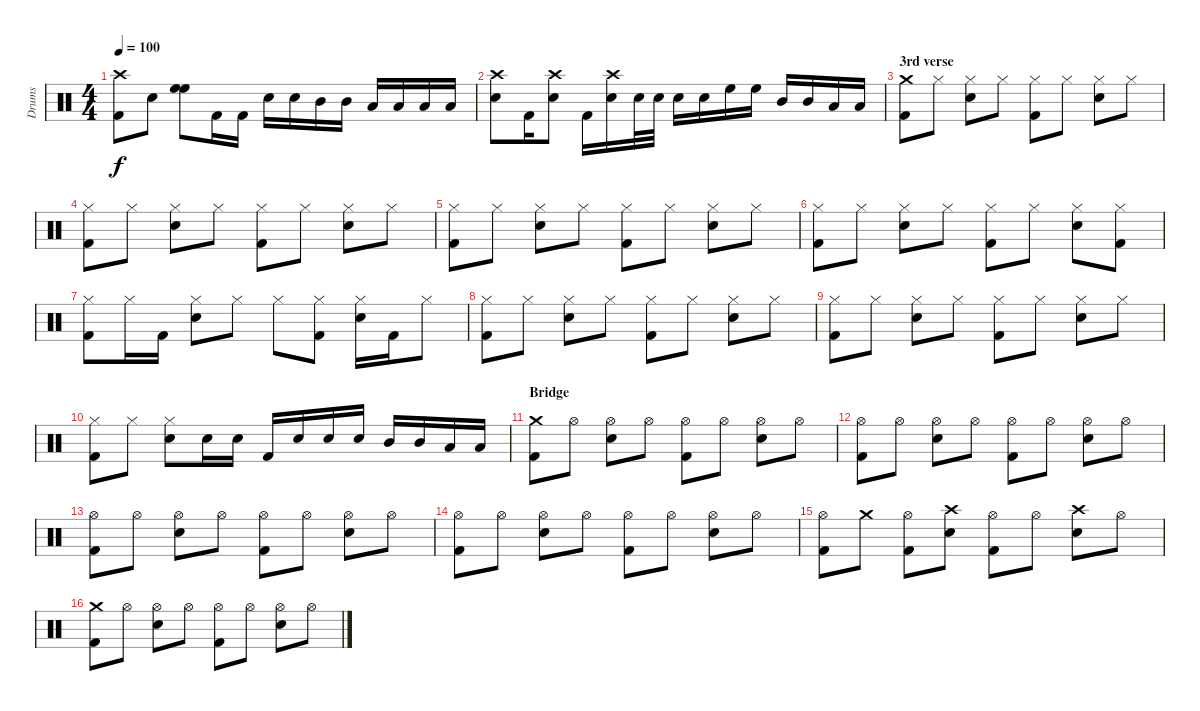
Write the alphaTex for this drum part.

\track ("Drums" "Drums") {instrument percussion}
\staff {score}
\articulation defaults
\ts (4 4)
\tempo 100
\clef neutral
\ks c
("Crash high (hit)" "Kick (hit) 2").8{dy f} "Snare (hit) 2".8 ("High Floor Tom (hit)" "High Floor Tom (hit)").8 "Kick (hit) 2".16 "Kick (hit) 2".16 "Snare (hit) 2".16 "Snare (hit) 2".16 "Mid Tom (hit)".16 "Mid Tom (hit)".16 "Low Tom (hit)".16 "Low Tom (hit)".16 "Low Floor Tom (hit)".16 "Low Floor Tom (hit)".16 |
("Crash high (hit)" "Snare (hit) 2").8 "Kick (hit) 2".16 ("Crash high (hit)" "Snare (hit) 2").8 "Kick (hit) 2".16 ("Crash high (hit)" "Snare (hit) 2").16 "Snare (hit) 2".32 "Snare (hit) 2".32 "Snare (hit) 2".16 "Snare (hit) 2".16 "High Floor Tom (hit)".16 "High Floor Tom (hit)".16 "Mid Tom (hit)".16 "Mid Tom (hit)".16 "Low Tom (hit)".16 "Low Tom (hit)".16 |
\section ("" "3rd verse")
("Crash medium (hit)" "Kick (hit) 2").8 "Hi-Hat (closed)".8 ("Hi-Hat (closed)" "Snare (hit) 2").8 "Hi-Hat (closed)".8 ("Hi-Hat (closed)" "Kick (hit) 2").8 "Hi-Hat (closed)".8 ("Hi-Hat (closed)" "Snare (hit) 2").8 "Hi-Hat (closed)".8 |
("Hi-Hat (closed)" "Kick (hit) 2").8 "Hi-Hat (closed)".8 ("Hi-Hat (closed)" "Snare (hit) 2").8 "Hi-Hat (closed)".8 ("Hi-Hat (closed)" "Kick (hit) 2").8 "Hi-Hat (closed)".8 ("Hi-Hat (closed)" "Snare (hit) 2").8 "Hi-Hat (closed)".8 |
("Hi-Hat (closed)" "Kick (hit) 2").8 "Hi-Hat (closed)".8 ("Hi-Hat (closed)" "Snare (hit) 2").8 "Hi-Hat (closed)".8 ("Hi-Hat (closed)" "Kick (hit) 2").8 "Hi-Hat (closed)".8 ("Hi-Hat (closed)" "Snare (hit) 2").8 "Hi-Hat (closed)".8 |
("Hi-Hat (closed)" "Kick (hit) 2").8 "Hi-Hat (closed)".8 ("Hi-Hat (closed)" "Snare (hit) 2").8 "Hi-Hat (closed)".8 ("Hi-Hat (closed)" "Kick (hit) 2").8 "Hi-Hat (closed)".8 ("Hi-Hat (closed)" "Snare (hit) 2").8 ("Hi-Hat (closed)" "Kick (hit) 2").8 |
("Hi-Hat (closed)" "Kick (hit) 2").8 "Hi-Hat (closed)".16 "Kick (hit) 2".16 ("Hi-Hat (closed)" "Snare (hit) 2").8 "Hi-Hat (closed)".8 "Hi-Hat (closed)".8 ("Hi-Hat (closed)" "Kick (hit) 2").8 ("Hi-Hat (closed)" "Snare (hit) 2").16 "Kick (hit) 2".16 "Hi-Hat (closed)".8 |
("Hi-Hat (closed)" "Kick (hit) 2").8 "Hi-Hat (closed)".8 ("Hi-Hat (closed)" "Snare (hit) 2").8 "Hi-Hat (closed)".8 ("Hi-Hat (closed)" "Kick (hit) 2").8 "Hi-Hat (closed)".8 ("Hi-Hat (closed)" "Snare (hit) 2").8 "Hi-Hat (closed)".8 |
("Hi-Hat (closed)" "Kick (hit) 2").8 "Hi-Hat (closed)".8 ("Hi-Hat (closed)" "Snare (hit) 2").8 "Hi-Hat (closed)".8 ("Hi-Hat (closed)" "Kick (hit) 2").8 "Hi-Hat (closed)".8 ("Hi-Hat (closed)" "Snare (hit) 2").8 "Hi-Hat (closed)".8 |
("Hi-Hat (closed)" "Kick (hit) 2").8 "Hi-Hat (closed)".8 ("Hi-Hat (closed)" "Snare (hit) 2").8 "Snare (hit) 2".16 "Snare (hit) 2".16 "Kick (hit) 2".16 "Snare (hit) 2".16 "Snare (hit) 2".16 "Snare (hit) 2".16 "Mid Tom (hit)".16 "Mid Tom (hit)".16 "Low Tom (hit)".16 "Low Tom (hit)".16 |
\section ("" "Bridge")
("Crash medium (hit)" "Kick (hit) 2").8 "Hi-Hat (open)".8 ("Hi-Hat (open)" "Snare (hit) 2").8 "Hi-Hat (open)".8 ("Hi-Hat (open)" "Kick (hit) 2").8 "Hi-Hat (open)".8 ("Hi-Hat (open)" "Snare (hit) 2").8 "Hi-Hat (open)".8 |
("Hi-Hat (open)" "Kick (hit) 2").8 "Hi-Hat (open)".8 ("Hi-Hat (open)" "Snare (hit) 2").8 "Hi-Hat (open)".8 ("Hi-Hat (open)" "Kick (hit) 2").8 "Hi-Hat (open)".8 ("Hi-Hat (open)" "Snare (hit) 2").8 "Hi-Hat (open)".8 |
("Hi-Hat (open)" "Kick (hit) 2").8 "Hi-Hat (open)".8 ("Hi-Hat (open)" "Snare (hit) 2").8 "Hi-Hat (open)".8 ("Hi-Hat (open)" "Kick (hit) 2").8 "Hi-Hat (open)".8 ("Hi-Hat (open)" "Snare (hit) 2").8 "Hi-Hat (open)".8 |
("Hi-Hat (open)" "Kick (hit) 2").8 "Hi-Hat (open)".8 ("Hi-Hat (open)" "Snare (hit) 2").8 "Hi-Hat (open)".8 ("Hi-Hat (open)" "Kick (hit) 2").8 "Hi-Hat (open)".8 ("Hi-Hat (open)" "Snare (hit) 2").8 "Hi-Hat (open)".8 |
("Hi-Hat (open)" "Kick (hit) 2").8 "Crash medium (hit)".8 ("Hi-Hat (open)" "Kick (hit) 2").8 ("Crash high (hit)" "Snare (hit) 2").8 ("Hi-Hat (open)" "Kick (hit) 2").8 "Hi-Hat (open)".8 ("Crash high (hit)" "Snare (hit) 2").8 "Hi-Hat (open)".8 |
("Crash medium (hit)" "Kick (hit) 2").8 "Hi-Hat (open)".8 ("Hi-Hat (open)" "Snare (hit) 2").8 "Hi-Hat (open)".8 ("Hi-Hat (open)" "Kick (hit) 2").8 "Hi-Hat (open)".8 ("Hi-Hat (open)" "Snare (hit) 2").8 "Hi-Hat (open)".8
